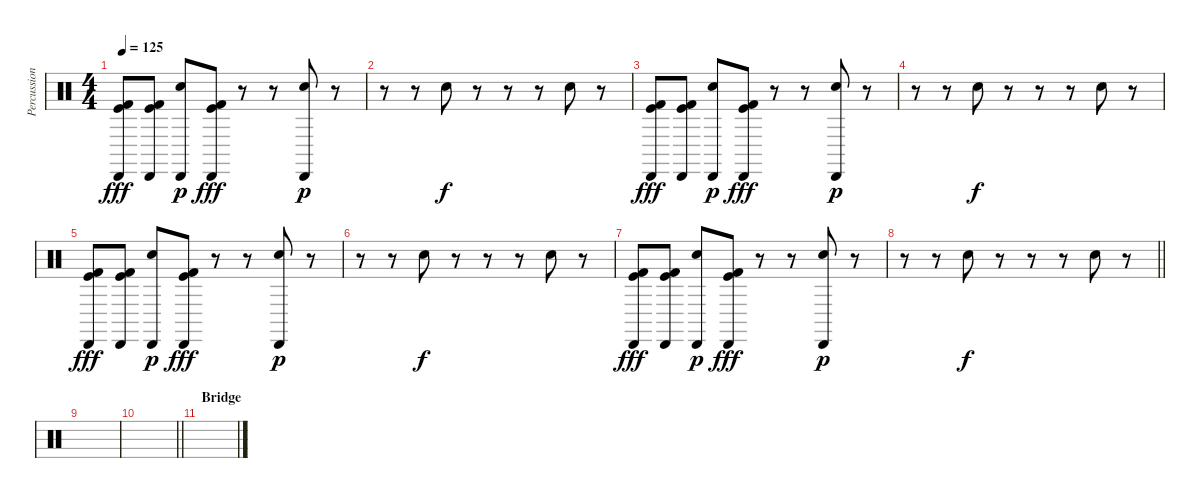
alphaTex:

\track ("Percussion" "Percussion") {instrument percussion}
\staff {score}
\articulation defaults
\ts (4 4)
\tempo 125
\clef neutral
\ks c
("Cabasa (hit)" "Kick (hit)" "Kick (hit) 2").8{dy fff} ("Cabasa (hit)" "Kick (hit)" "Kick (hit) 2").8 ("Cabasa (hit)" "Electric Snare (hit)").8{dy p} ("Cabasa (hit)" "Kick (hit)" "Kick (hit) 2").8{dy fff} r.8 r.8 ("Cabasa (hit)" "Electric Snare (hit)").8{dy p} r.8 |
r.8 r.8 "Electric Snare (hit)".8{dy f} r.8 r.8 r.8 "Electric Snare (hit)".8 r.8 |
("Cabasa (hit)" "Kick (hit)" "Kick (hit) 2").8{dy fff} ("Cabasa (hit)" "Kick (hit)" "Kick (hit) 2").8 ("Cabasa (hit)" "Electric Snare (hit)").8{dy p} ("Cabasa (hit)" "Kick (hit)" "Kick (hit) 2").8{dy fff} r.8 r.8 ("Cabasa (hit)" "Electric Snare (hit)").8{dy p} r.8 |
r.8 r.8 "Electric Snare (hit)".8{dy f} r.8 r.8 r.8 "Electric Snare (hit)".8 r.8 |
("Cabasa (hit)" "Kick (hit)" "Kick (hit) 2").8{dy fff} ("Cabasa (hit)" "Kick (hit)" "Kick (hit) 2").8 ("Cabasa (hit)" "Electric Snare (hit)").8{dy p} ("Cabasa (hit)" "Kick (hit)" "Kick (hit) 2").8{dy fff} r.8 r.8 ("Cabasa (hit)" "Electric Snare (hit)").8{dy p} r.8 |
r.8 r.8 "Electric Snare (hit)".8{dy f} r.8 r.8 r.8 "Electric Snare (hit)".8 r.8 |
("Cabasa (hit)" "Kick (hit)" "Kick (hit) 2").8{dy fff} ("Cabasa (hit)" "Kick (hit)" "Kick (hit) 2").8 ("Cabasa (hit)" "Electric Snare (hit)").8{dy p} ("Cabasa (hit)" "Kick (hit)" "Kick (hit) 2").8{dy fff} r.8 r.8 ("Cabasa (hit)" "Electric Snare (hit)").8{dy p} r.8 |
\barLineRight lightlight
r.8 r.8 "Electric Snare (hit)".8{dy f} r.8 r.8 r.8 "Electric Snare (hit)".8 r.8 |
|
\barLineRight lightlight
|
\section ("" "Bridge")
